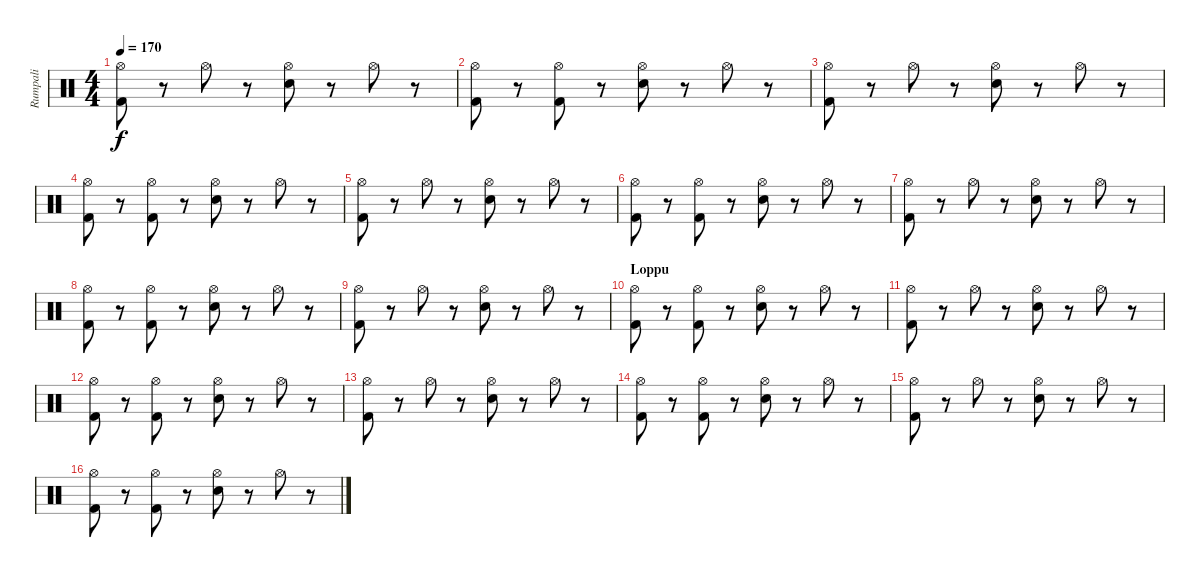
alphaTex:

\track ("Rumpali" "Rumpali") {instrument percussion}
\staff {score}
\articulation defaults
\ts (4 4)
\tempo 170
\clef neutral
\ks c
("Hi-Hat (open)" "Kick (hit) 2").8{dy f} r.8 "Hi-Hat (open)".8 r.8 ("Hi-Hat (open)" "Electric Snare (hit)").8 r.8 "Hi-Hat (open)".8 r.8 |
("Hi-Hat (open)" "Kick (hit) 2").8 r.8 ("Hi-Hat (open)" "Kick (hit) 2").8 r.8 ("Hi-Hat (open)" "Electric Snare (hit)").8 r.8 "Hi-Hat (open)".8 r.8 |
("Hi-Hat (open)" "Kick (hit) 2").8 r.8 "Hi-Hat (open)".8 r.8 ("Hi-Hat (open)" "Electric Snare (hit)").8 r.8 "Hi-Hat (open)".8 r.8 |
("Hi-Hat (open)" "Kick (hit) 2").8 r.8 ("Hi-Hat (open)" "Kick (hit) 2").8 r.8 ("Hi-Hat (open)" "Electric Snare (hit)").8 r.8 "Hi-Hat (open)".8 r.8 |
("Hi-Hat (open)" "Kick (hit) 2").8 r.8 "Hi-Hat (open)".8 r.8 ("Hi-Hat (open)" "Electric Snare (hit)").8 r.8 "Hi-Hat (open)".8 r.8 |
("Hi-Hat (open)" "Kick (hit) 2").8 r.8 ("Hi-Hat (open)" "Kick (hit) 2").8 r.8 ("Hi-Hat (open)" "Electric Snare (hit)").8 r.8 "Hi-Hat (open)".8 r.8 |
("Hi-Hat (open)" "Kick (hit) 2").8 r.8 "Hi-Hat (open)".8 r.8 ("Hi-Hat (open)" "Electric Snare (hit)").8 r.8 "Hi-Hat (open)".8 r.8 |
("Hi-Hat (open)" "Kick (hit) 2").8 r.8 ("Hi-Hat (open)" "Kick (hit) 2").8 r.8 ("Hi-Hat (open)" "Electric Snare (hit)").8 r.8 "Hi-Hat (open)".8 r.8 |
("Hi-Hat (open)" "Kick (hit) 2").8 r.8 "Hi-Hat (open)".8 r.8 ("Hi-Hat (open)" "Electric Snare (hit)").8 r.8 "Hi-Hat (open)".8 r.8 |
\section ("" "Loppu")
("Hi-Hat (open)" "Kick (hit) 2").8 r.8 ("Hi-Hat (open)" "Kick (hit) 2").8 r.8 ("Hi-Hat (open)" "Electric Snare (hit)").8 r.8 "Hi-Hat (open)".8 r.8 |
("Hi-Hat (open)" "Kick (hit) 2").8 r.8 "Hi-Hat (open)".8 r.8 ("Hi-Hat (open)" "Electric Snare (hit)").8 r.8 "Hi-Hat (open)".8 r.8 |
("Hi-Hat (open)" "Kick (hit) 2").8 r.8 ("Hi-Hat (open)" "Kick (hit) 2").8 r.8 ("Hi-Hat (open)" "Electric Snare (hit)").8 r.8 "Hi-Hat (open)".8 r.8 |
("Hi-Hat (open)" "Kick (hit) 2").8 r.8 "Hi-Hat (open)".8 r.8 ("Hi-Hat (open)" "Electric Snare (hit)").8 r.8 "Hi-Hat (open)".8 r.8 |
("Hi-Hat (open)" "Kick (hit) 2").8 r.8 ("Hi-Hat (open)" "Kick (hit) 2").8 r.8 ("Hi-Hat (open)" "Electric Snare (hit)").8 r.8 "Hi-Hat (open)".8 r.8 |
("Hi-Hat (open)" "Kick (hit) 2").8 r.8 "Hi-Hat (open)".8 r.8 ("Hi-Hat (open)" "Electric Snare (hit)").8 r.8 "Hi-Hat (open)".8 r.8 |
("Hi-Hat (open)" "Kick (hit) 2").8 r.8 ("Hi-Hat (open)" "Kick (hit) 2").8 r.8 ("Hi-Hat (open)" "Electric Snare (hit)").8 r.8 "Hi-Hat (open)".8 r.8
